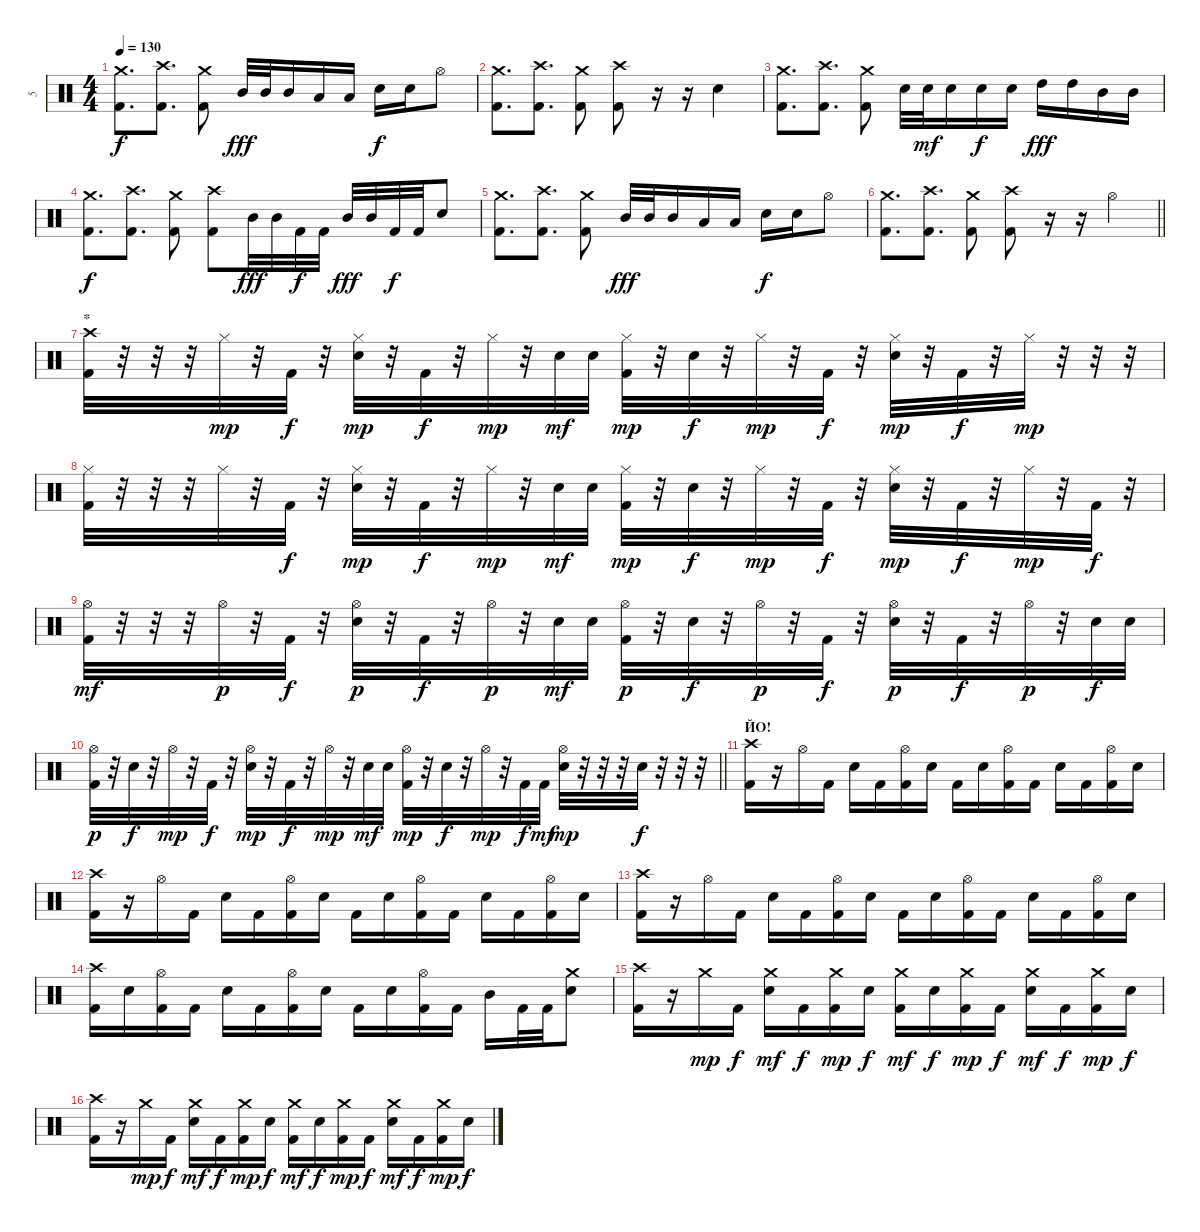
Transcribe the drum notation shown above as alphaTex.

\track ("5" "5") {instrument percussion}
\staff {score}
\articulation defaults
\ts (4 4)
\tempo 130
\clef neutral
\ks c
("Crash medium (hit)" "Kick (hit) 2").8{d dy f} ("Crash high (hit)" "Kick (hit) 2").8{d} ("Crash medium (hit)" "Kick (hit) 2").8 "Mid Tom (hit)".32{dy fff} "Mid Tom (hit)".32 "Mid Tom (hit)".16 "Low Tom (hit)".16 "Low Tom (hit)".16 "Electric Snare (hit)".16{dy f} "Electric Snare (hit)".16 "Hi-Hat (open)".8 |
("Crash medium (hit)" "Kick (hit) 2").8{d} ("Crash high (hit)" "Kick (hit) 2").8{d} ("Crash medium (hit)" "Kick (hit) 2").8 ("Crash high (hit)" "Kick (hit) 2").8 r.16 r.16 "Electric Snare (hit)".4 |
("Crash medium (hit)" "Kick (hit) 2").8{d} ("Crash high (hit)" "Kick (hit) 2").8{d} ("Crash medium (hit)" "Kick (hit) 2").8 "Electric Snare (hit)".32 "Electric Snare (hit)".32{dy mf} "Electric Snare (hit)".16 "Electric Snare (hit)".16{dy f} "Electric Snare (hit)".16 "High Tom (hit)".16{dy fff} "High Tom (hit)".16 "Mid Tom (hit)".16 "Mid Tom (hit)".16 |
("Crash medium (hit)" "Kick (hit) 2").8{d dy f} ("Crash high (hit)" "Kick (hit) 2").8{d} ("Crash medium (hit)" "Kick (hit) 2").8 ("Crash high (hit)" "Kick (hit) 2").8 "Mid Tom (hit)".32{dy fff} "Mid Tom (hit)".32 "Kick (hit) 2".32{dy f} "Kick (hit) 2".32 "Mid Tom (hit)".32{dy fff} "Mid Tom (hit)".32 "Kick (hit) 2".32{dy f} "Kick (hit) 2".32 "Electric Snare (hit)".8 |
("Crash medium (hit)" "Kick (hit) 2").8{d} ("Crash high (hit)" "Kick (hit) 2").8{d} ("Crash medium (hit)" "Kick (hit) 2").8 "Mid Tom (hit)".32{dy fff} "Mid Tom (hit)".32 "Mid Tom (hit)".16 "Low Tom (hit)".16 "Low Tom (hit)".16 "Electric Snare (hit)".16{dy f} "Electric Snare (hit)".16 "Hi-Hat (open)".8 |
\barLineRight lightlight
("Crash medium (hit)" "Kick (hit) 2").8{d} ("Crash high (hit)" "Kick (hit) 2").8{d} ("Crash medium (hit)" "Kick (hit) 2").8 ("Crash high (hit)" "Kick (hit) 2").8 r.16 r.16 "Hi-Hat (open)".4 |
\section ("" "*")
("Crash high (hit)" "Kick (hit) 2").32 r.32 r.32 r.32 "Hi-Hat (closed)".32{dy mp} r.32 "Kick (hit) 2".32{dy f} r.32 ("Hi-Hat (closed)" "Electric Snare (hit)").32{dy mp} r.32 "Kick (hit) 2".32{dy f} r.32 "Hi-Hat (closed)".32{dy mp} r.32 "Electric Snare (hit)".32{dy mf} "Electric Snare (hit)".32 ("Hi-Hat (closed)" "Kick (hit) 2").32{dy mp} r.32 "Electric Snare (hit)".32{dy f} r.32 "Hi-Hat (closed)".32{dy mp} r.32 "Kick (hit) 2".32{dy f} r.32 ("Hi-Hat (closed)" "Electric Snare (hit)").32{dy mp} r.32 "Kick (hit) 2".32{dy f} r.32 "Hi-Hat (closed)".32{dy mp} r.32 r.32 r.32 |
("Hi-Hat (closed)" "Kick (hit) 2").32 r.32 r.32 r.32 "Hi-Hat (closed)".32 r.32 "Kick (hit) 2".32{dy f} r.32 ("Hi-Hat (closed)" "Electric Snare (hit)").32{dy mp} r.32 "Kick (hit) 2".32{dy f} r.32 "Hi-Hat (closed)".32{dy mp} r.32 "Electric Snare (hit)".32{dy mf} "Electric Snare (hit)".32 ("Hi-Hat (closed)" "Kick (hit) 2").32{dy mp} r.32 "Electric Snare (hit)".32{dy f} r.32 "Hi-Hat (closed)".32{dy mp} r.32 "Kick (hit) 2".32{dy f} r.32 ("Hi-Hat (closed)" "Electric Snare (hit)").32{dy mp} r.32 "Kick (hit) 2".32{dy f} r.32 "Hi-Hat (closed)".32{dy mp} r.32 "Kick (hit) 2".32{dy f} r.32 |
("Hi-Hat (open)" "Kick (hit) 2").32{dy mf} r.32 r.32 r.32 "Hi-Hat (open)".32{dy p} r.32 "Kick (hit) 2".32{dy f} r.32 ("Hi-Hat (open)" "Electric Snare (hit)").32{dy p} r.32 "Kick (hit) 2".32{dy f} r.32 "Hi-Hat (open)".32{dy p} r.32 "Electric Snare (hit)".32{dy mf} "Electric Snare (hit)".32 ("Hi-Hat (open)" "Kick (hit) 2").32{dy p} r.32 "Electric Snare (hit)".32{dy f} r.32 "Hi-Hat (open)".32{dy p} r.32 "Kick (hit) 2".32{dy f} r.32 ("Hi-Hat (open)" "Electric Snare (hit)").32{dy p} r.32 "Kick (hit) 2".32{dy f} r.32 "Hi-Hat (open)".32{dy p} r.32 "Electric Snare (hit)".32{dy f} "Electric Snare (hit)".32 |
\barLineRight lightlight
("Hi-Hat (open)" "Kick (hit) 2").32{dy p} r.32 "Electric Snare (hit)".32{dy f} r.32 "Hi-Hat (open)".32{dy mp} r.32 "Kick (hit) 2".32{dy f} r.32 ("Hi-Hat (open)" "Electric Snare (hit)").32{dy mp} r.32 "Kick (hit) 2".32{dy f} r.32 "Hi-Hat (open)".32{dy mp} r.32 "Electric Snare (hit)".32{dy mf} "Electric Snare (hit)".32 ("Hi-Hat (open)" "Kick (hit) 2").32{dy mp} r.32 "Electric Snare (hit)".32{dy f} r.32 "Hi-Hat (open)".32{dy mp} r.32 "Kick (hit) 2".32{dy f} "Kick (hit) 2".32{dy mf} ("Hi-Hat (open)" "Electric Snare (hit)").32{dy mp} r.32 r.32 r.32 "Electric Snare (hit)".32{dy f} r.32 r.32 r.32 |
\section ("" "ЙО!")
("Crash high (hit)" "Kick (hit) 2").16 r.16 "Hi-Hat (open)".16 "Kick (hit) 2".16 "Electric Snare (hit)".16 "Kick (hit) 2".16 ("Hi-Hat (open)" "Kick (hit) 2").16 "Electric Snare (hit)".16 "Kick (hit) 2".16 "Electric Snare (hit)".16 ("Hi-Hat (open)" "Kick (hit) 2").16 "Kick (hit) 2".16 "Electric Snare (hit)".16 "Kick (hit) 2".16 ("Hi-Hat (open)" "Kick (hit) 2").16 "Electric Snare (hit)".16 |
("Crash high (hit)" "Kick (hit) 2").16 r.16 "Hi-Hat (open)".16 "Kick (hit) 2".16 "Electric Snare (hit)".16 "Kick (hit) 2".16 ("Hi-Hat (open)" "Kick (hit) 2").16 "Electric Snare (hit)".16 "Kick (hit) 2".16 "Electric Snare (hit)".16 ("Hi-Hat (open)" "Kick (hit) 2").16 "Kick (hit) 2".16 "Electric Snare (hit)".16 "Kick (hit) 2".16 ("Hi-Hat (open)" "Kick (hit) 2").16 "Electric Snare (hit)".16 |
("Crash high (hit)" "Kick (hit) 2").16 r.16 "Hi-Hat (open)".16 "Kick (hit) 2".16 "Electric Snare (hit)".16 "Kick (hit) 2".16 ("Hi-Hat (open)" "Kick (hit) 2").16 "Electric Snare (hit)".16 "Kick (hit) 2".16 "Electric Snare (hit)".16 ("Hi-Hat (open)" "Kick (hit) 2").16 "Kick (hit) 2".16 "Electric Snare (hit)".16 "Kick (hit) 2".16 ("Hi-Hat (open)" "Kick (hit) 2").16 "Electric Snare (hit)".16 |
("Crash high (hit)" "Kick (hit) 2").16 "Electric Snare (hit)".16 ("Hi-Hat (open)" "Kick (hit) 2").16 "Kick (hit) 2".16 "Electric Snare (hit)".16 "Kick (hit) 2".16 ("Hi-Hat (open)" "Kick (hit) 2").16 "Electric Snare (hit)".16 "Kick (hit) 2".16 "Electric Snare (hit)".16 ("Hi-Hat (open)" "Kick (hit) 2").16 "Kick (hit) 2".16 "Mid Tom (hit)".16 "Kick (hit) 2".32 "Kick (hit) 2".32 ("Crash medium (hit)" "Electric Snare (hit)").8 |
("Crash high (hit)" "Kick (hit) 2").16 r.16 "Crash medium (hit)".16{dy mp} "Kick (hit) 2".16{dy f} ("Crash medium (hit)" "Electric Snare (hit)").16{dy mf} "Kick (hit) 2".16{dy f} ("Crash medium (hit)" "Kick (hit) 2").16{dy mp} "Electric Snare (hit)".16{dy f} ("Crash medium (hit)" "Kick (hit) 2").16{dy mf} "Electric Snare (hit)".16{dy f} ("Crash medium (hit)" "Kick (hit) 2").16{dy mp} "Kick (hit) 2".16{dy f} ("Crash medium (hit)" "Electric Snare (hit)").16{dy mf} "Kick (hit) 2".16{dy f} ("Crash medium (hit)" "Kick (hit) 2").16{dy mp} "Electric Snare (hit)".16{dy f} |
("Crash high (hit)" "Kick (hit) 2").16 r.16 "Crash medium (hit)".16{dy mp} "Kick (hit) 2".16{dy f} ("Crash medium (hit)" "Electric Snare (hit)").16{dy mf} "Kick (hit) 2".16{dy f} ("Crash medium (hit)" "Kick (hit) 2").16{dy mp} "Electric Snare (hit)".16{dy f} ("Crash medium (hit)" "Kick (hit) 2").16{dy mf} "Electric Snare (hit)".16{dy f} ("Crash medium (hit)" "Kick (hit) 2").16{dy mp} "Kick (hit) 2".16{dy f} ("Crash medium (hit)" "Electric Snare (hit)").16{dy mf} "Kick (hit) 2".16{dy f} ("Crash medium (hit)" "Kick (hit) 2").16{dy mp} "Electric Snare (hit)".16{dy f}
